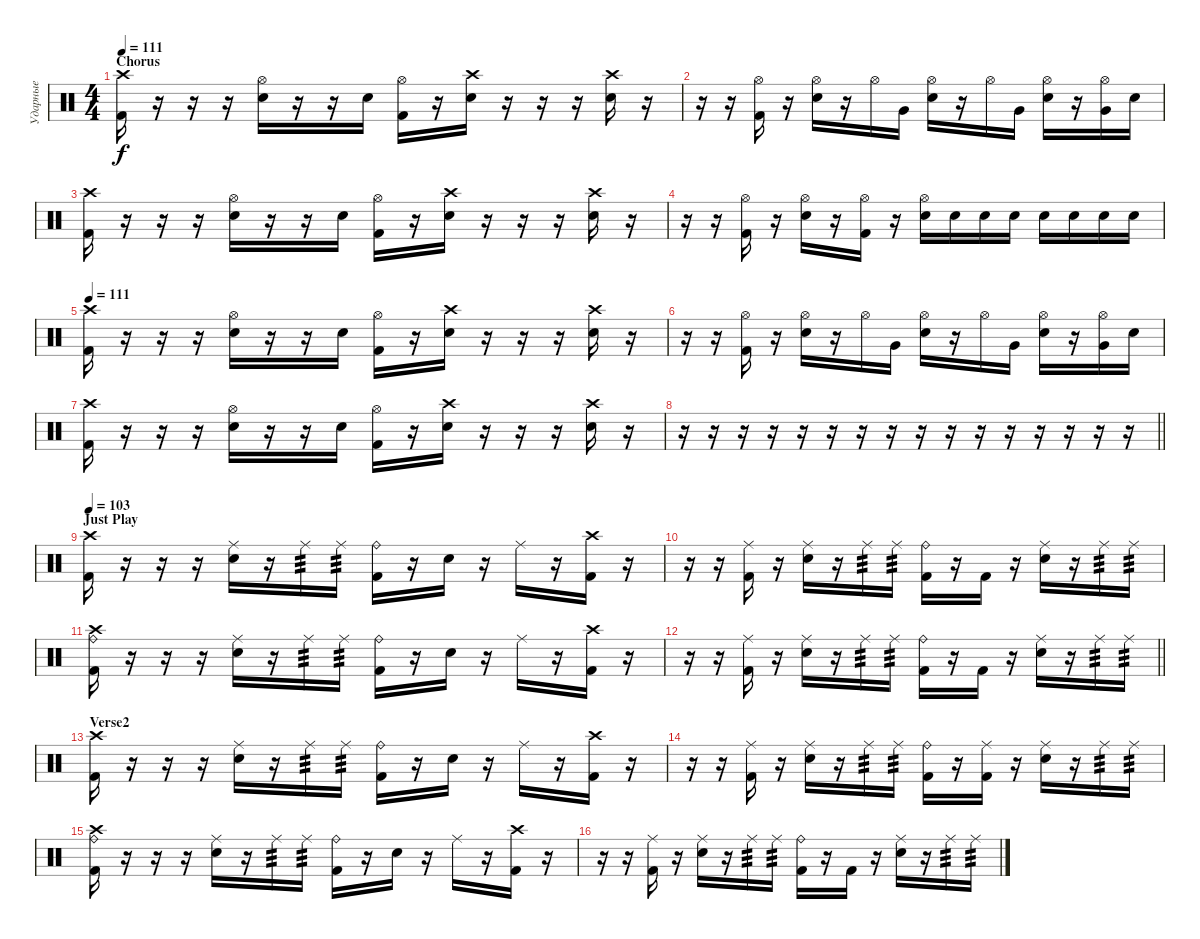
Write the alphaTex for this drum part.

\track ("Ударные" "Ударные") {instrument percussion}
\staff {score}
\articulation defaults
\ts (4 4)
\section ("" "Chorus")
\tempo 111
\clef neutral
\ks c
("Crash high (hit)" "Kick (hit) 2").16{dy f} r.16 r.16 r.16 ("Hi-Hat (open)" "Electric Snare (hit)").16 r.16 r.16 "Electric Snare (hit)".16 ("Hi-Hat (open)" "Kick (hit) 2").16 r.16 ("Crash high (hit)" "Electric Snare (hit)").16 r.16 r.16 r.16 ("Crash high (hit)" "Electric Snare (hit)").16 r.16 |
r.16 r.16 ("Hi-Hat (open)" "Kick (hit) 2").16 r.16 ("Hi-Hat (open)" "Electric Snare (hit)").16 r.16 "Hi-Hat (open)".16 "Very Low Tom (hit)".16 ("Hi-Hat (open)" "Electric Snare (hit)").16 r.16 "Hi-Hat (open)".16 "Very Low Tom (hit)".16 ("Hi-Hat (open)" "Electric Snare (hit)").16 r.16 ("Hi-Hat (open)" "Very Low Tom (hit)").16 "Electric Snare (hit)".16 |
("Crash high (hit)" "Kick (hit) 2").16 r.16 r.16 r.16 ("Hi-Hat (open)" "Electric Snare (hit)").16 r.16 r.16 "Electric Snare (hit)".16 ("Hi-Hat (open)" "Kick (hit) 2").16 r.16 ("Crash high (hit)" "Electric Snare (hit)").16 r.16 r.16 r.16 ("Crash high (hit)" "Electric Snare (hit)").16 r.16 |
r.16 r.16 ("Hi-Hat (open)" "Kick (hit) 2").16 r.16 ("Hi-Hat (open)" "Electric Snare (hit)").16 r.16 ("Hi-Hat (open)" "Kick (hit) 2").16 r.16 ("Hi-Hat (open)" "Electric Snare (hit)").16 "Electric Snare (hit)".16 "Electric Snare (hit)".16 "Electric Snare (hit)".16 "Electric Snare (hit)".16 "Electric Snare (hit)".16 "Electric Snare (hit)".16 "Electric Snare (hit)".16 |
\tempo 111
("Crash high (hit)" "Kick (hit) 2").16 r.16 r.16 r.16 ("Hi-Hat (open)" "Electric Snare (hit)").16 r.16 r.16 "Electric Snare (hit)".16 ("Hi-Hat (open)" "Kick (hit) 2").16 r.16 ("Crash high (hit)" "Electric Snare (hit)").16 r.16 r.16 r.16 ("Crash high (hit)" "Electric Snare (hit)").16 r.16 |
r.16 r.16 ("Hi-Hat (open)" "Kick (hit) 2").16 r.16 ("Hi-Hat (open)" "Electric Snare (hit)").16 r.16 "Hi-Hat (open)".16 "Very Low Tom (hit)".16 ("Hi-Hat (open)" "Electric Snare (hit)").16 r.16 "Hi-Hat (open)".16 "Very Low Tom (hit)".16 ("Hi-Hat (open)" "Electric Snare (hit)").16 r.16 ("Hi-Hat (open)" "Very Low Tom (hit)").16 "Electric Snare (hit)".16 |
("Crash high (hit)" "Kick (hit) 2").16 r.16 r.16 r.16 ("Hi-Hat (open)" "Electric Snare (hit)").16 r.16 r.16 "Electric Snare (hit)".16 ("Hi-Hat (open)" "Kick (hit) 2").16 r.16 ("Crash high (hit)" "Electric Snare (hit)").16 r.16 r.16 r.16 ("Crash high (hit)" "Electric Snare (hit)").16 r.16 |
\barLineRight lightlight
r.16 r.16 r.16 r.16 r.16 r.16 r.16 r.16 r.16 r.16 r.16 r.16 r.16 r.16 r.16 r.16 |
\section ("" "Just Play")
\tempo 103
("Crash high (hit)" "Kick (hit) 2").16 r.16 r.16 r.16 ("Ride (middle)" "Electric Snare (hit)").16 r.16 "Ride (middle)".16{tp 3} "Ride (middle)".16{tp 3} ("Ride (bell)" "Kick (hit) 2").16 r.16 "Electric Snare (hit)".16 r.16 "Ride (middle)".16 r.16 ("Crash high (hit)" "Kick (hit) 2").16 r.16 |
r.16 r.16 ("Ride (middle)" "Kick (hit) 2").16 r.16 ("Ride (middle)" "Electric Snare (hit)").16 r.16 "Ride (middle)".16{tp 3} "Ride (middle)".16{tp 3} ("Ride (bell)" "Kick (hit) 2").16 r.16 "Kick (hit) 2".16 r.16 ("Ride (middle)" "Electric Snare (hit)").16 r.16 "Ride (middle)".16{tp 3} "Ride (middle)".16{tp 3} |
("Crash high (hit)" "Ride (bell)" "Kick (hit) 2").16 r.16 r.16 r.16 ("Ride (middle)" "Electric Snare (hit)").16 r.16 "Ride (middle)".16{tp 3} "Ride (middle)".16{tp 3} ("Ride (bell)" "Kick (hit) 2").16 r.16 "Electric Snare (hit)".16 r.16 "Ride (middle)".16 r.16 ("Crash high (hit)" "Kick (hit) 2").16 r.16 |
\barLineRight lightlight
r.16 r.16 ("Ride (middle)" "Kick (hit) 2").16 r.16 ("Ride (middle)" "Electric Snare (hit)").16 r.16 "Ride (middle)".16{tp 3} "Ride (middle)".16{tp 3} ("Ride (bell)" "Kick (hit) 2").16 r.16 "Kick (hit) 2".16 r.16 ("Ride (middle)" "Electric Snare (hit)").16 r.16 "Ride (middle)".16{tp 3} "Ride (middle)".16{tp 3} |
\section ("" "Verse2")
("Crash high (hit)" "Kick (hit) 2").16 r.16 r.16 r.16 ("Ride (middle)" "Electric Snare (hit)").16 r.16 "Ride (middle)".16{tp 3} "Ride (middle)".16{tp 3} ("Ride (bell)" "Kick (hit) 2").16 r.16 "Electric Snare (hit)".16 r.16 "Ride (middle)".16 r.16 ("Crash high (hit)" "Kick (hit) 2").16 r.16 |
r.16 r.16 ("Ride (middle)" "Kick (hit) 2").16 r.16 ("Ride (middle)" "Electric Snare (hit)").16 r.16 "Ride (middle)".16{tp 3} "Ride (middle)".16{tp 3} ("Ride (bell)" "Kick (hit) 2").16 r.16 ("Ride (middle)" "Kick (hit) 2").16 r.16 ("Ride (middle)" "Electric Snare (hit)").16 r.16 "Ride (middle)".16{tp 3} "Ride (middle)".16{tp 3} |
("Crash high (hit)" "Ride (bell)" "Kick (hit) 2").16 r.16 r.16 r.16 ("Ride (middle)" "Electric Snare (hit)").16 r.16 "Ride (middle)".16{tp 3} "Ride (middle)".16{tp 3} ("Ride (bell)" "Kick (hit) 2").16 r.16 "Electric Snare (hit)".16 r.16 "Ride (middle)".16 r.16 ("Crash high (hit)" "Kick (hit) 2").16 r.16 |
r.16 r.16 ("Ride (middle)" "Kick (hit) 2").16 r.16 ("Ride (middle)" "Electric Snare (hit)").16 r.16 "Ride (middle)".16{tp 3} "Ride (middle)".16{tp 3} ("Ride (bell)" "Kick (hit) 2").16 r.16 "Kick (hit) 2".16 r.16 ("Ride (middle)" "Electric Snare (hit)").16 r.16 "Ride (middle)".16{tp 3} "Ride (middle)".16{tp 3}
